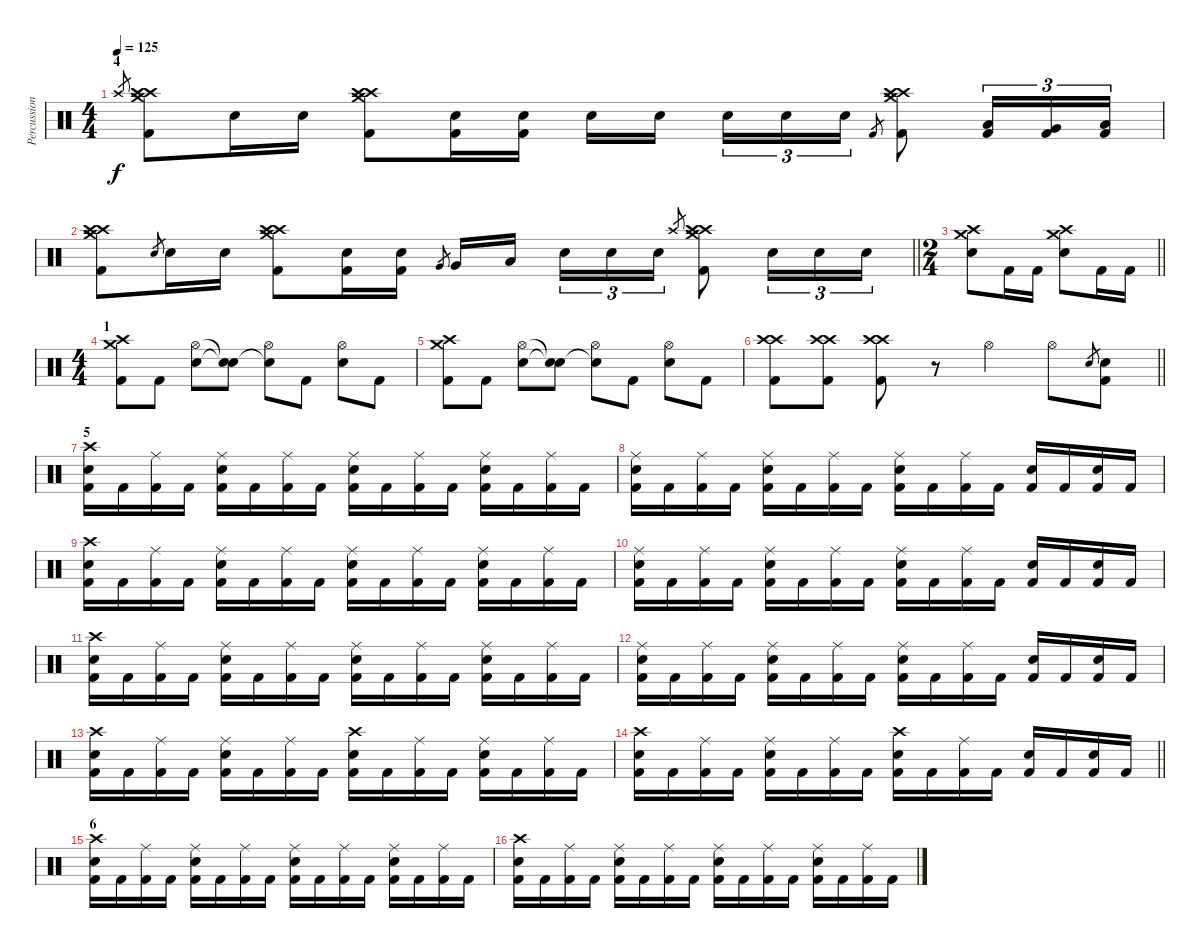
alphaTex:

\track ("Percussion" "Percussion") {instrument percussion}
\staff {score}
\articulation defaults
\ts (4 4)
\section ("" "4")
\tempo 125
\clef neutral
\ks c "Crash high (hit)".8{gr dy f}
("Crash high (hit)" "Crash medium (hit)" "Crash high (hit)" "Kick (hit) 2").8 "Snare (hit) 2".16 "Snare (hit) 2".16 ("Crash high (hit)" "Crash medium (hit)" "Crash high (hit)" "Kick (hit) 2").8 ("Snare (hit) 2" "Kick (hit) 2").16 ("Snare (hit) 2" "Kick (hit) 2").16 "Snare (hit) 2".16 "Snare (hit) 2".16{beam splitsecondary} "Snare (hit) 2".16{tu (3 2)} "Snare (hit) 2".16{tu (3 2)} "Snare (hit) 2".16{tu (3 2)} "Kick (hit) 2".8{gr} ("Crash high (hit)" "Crash medium (hit)" "Crash high (hit)" "Kick (hit) 2").8 ("Low Tom (hit)" "Kick (hit) 2").16{tu (3 2)} ("Very Low Tom (hit)" "Kick (hit) 2").16{tu (3 2)} ("Low Floor Tom (hit)" "Kick (hit) 2").16{tu (3 2)} |
\barLineRight lightlight
("Crash high (hit)" "Crash medium (hit)" "Crash high (hit)" "Kick (hit) 2").8 "Snare (hit) 2".8{gr} "Snare (hit) 2".16 "Snare (hit) 2".16 ("Crash high (hit)" "Crash medium (hit)" "Crash high (hit)" "Kick (hit) 2").8 ("Snare (hit) 2" "Kick (hit) 2").16 ("Snare (hit) 2" "Kick (hit) 2").16 "Very Low Tom (hit)".8{gr} "Very Low Tom (hit)".16 "Low Floor Tom (hit)".16{beam splitsecondary} "Snare (hit) 2".16{tu (3 2)} "Snare (hit) 2".16{tu (3 2)} "Snare (hit) 2".16{tu (3 2)} "Crash high (hit)".8{gr} ("Crash high (hit)" "Crash medium (hit)" "Crash high (hit)" "Kick (hit) 2").8 "Snare (hit) 2".16{tu (3 2)} "Snare (hit) 2".16{tu (3 2)} "Snare (hit) 2".16{tu (3 2)} |
\ts (2 4)
\barLineRight lightlight
("Crash medium (hit)" "Crash high (hit)" "Snare (hit) 2").8 "Kick (hit) 2".16 "Kick (hit) 2".16 ("Crash high (hit)" "Crash medium (hit)" "Snare (hit) 2").8 "Kick (hit) 2".16 "Kick (hit) 2".16 |
\ts (4 4)
\section ("" "1")
("Crash medium (hit)" "Crash high (hit)" "Kick (hit) 2").8 "Kick (hit) 2".8 ("Hi-Hat (open)" "Snare (hit) 2").8 ("Snare (hit)"{t} "Snare (hit)"{t}).8 ("Hi-Hat (open)" "Snare (hit)"{t}).8 "Kick (hit) 2".8 ("Hi-Hat (open)" "Snare (hit) 2").8 "Kick (hit) 2".8 |
("Crash medium (hit)" "Crash high (hit)" "Kick (hit) 2").8 "Kick (hit) 2".8 ("Hi-Hat (open)" "Snare (hit) 2").8 ("Snare (hit)"{t} "Snare (hit)"{t}).8 ("Hi-Hat (open)" "Snare (hit)"{t}).8 "Kick (hit) 2".8 ("Hi-Hat (open)" "Snare (hit) 2").8 "Kick (hit) 2".8 |
\barLineRight lightlight
("Crash high (hit)" "Crash high (hit)" "Kick (hit) 2").8 ("Crash high (hit)" "Crash high (hit)" "Kick (hit) 2").8 ("Crash high (hit)" "Crash high (hit)" "Kick (hit) 2").8 r.8 "Hi-Hat (open)".4 "Hi-Hat (open)".8 "Snare (hit) 2".8{gr} ("Snare (hit) 2" "Kick (hit) 2").8 |
\section ("" "5")
("Crash high (hit)" "Snare (hit) 2" "Kick (hit) 2").16 "Kick (hit) 2".16 ("Ride (middle)" "Kick (hit) 2").16 "Kick (hit) 2".16 ("Ride (middle)" "Snare (hit) 2" "Kick (hit) 2").16 "Kick (hit) 2".16 ("Ride (middle)" "Kick (hit) 2").16 "Kick (hit) 2".16 ("Ride (middle)" "Snare (hit) 2" "Kick (hit) 2").16 "Kick (hit) 2".16 ("Ride (middle)" "Kick (hit) 2").16 "Kick (hit) 2".16 ("Ride (middle)" "Snare (hit) 2" "Kick (hit) 2").16 "Kick (hit) 2".16 ("Ride (middle)" "Kick (hit) 2").16 "Kick (hit) 2".16 |
("Ride (middle)" "Snare (hit) 2" "Kick (hit) 2").16 "Kick (hit) 2".16 ("Ride (middle)" "Kick (hit) 2").16 "Kick (hit) 2".16 ("Ride (middle)" "Snare (hit) 2" "Kick (hit) 2").16 "Kick (hit) 2".16 ("Ride (middle)" "Kick (hit) 2").16 "Kick (hit) 2".16 ("Ride (middle)" "Snare (hit) 2" "Kick (hit) 2").16 "Kick (hit) 2".16 ("Ride (middle)" "Kick (hit) 2").16 "Kick (hit) 2".16 ("Snare (hit) 2" "Kick (hit) 2").16 "Kick (hit) 2".16 ("Snare (hit) 2" "Kick (hit) 2").16 "Kick (hit) 2".16 |
("Crash high (hit)" "Snare (hit) 2" "Kick (hit) 2").16 "Kick (hit) 2".16 ("Ride (middle)" "Kick (hit) 2").16 "Kick (hit) 2".16 ("Ride (middle)" "Snare (hit) 2" "Kick (hit) 2").16 "Kick (hit) 2".16 ("Ride (middle)" "Kick (hit) 2").16 "Kick (hit) 2".16 ("Ride (middle)" "Snare (hit) 2" "Kick (hit) 2").16 "Kick (hit) 2".16 ("Ride (middle)" "Kick (hit) 2").16 "Kick (hit) 2".16 ("Ride (middle)" "Snare (hit) 2" "Kick (hit) 2").16 "Kick (hit) 2".16 ("Ride (middle)" "Kick (hit) 2").16 "Kick (hit) 2".16 |
("Ride (middle)" "Snare (hit) 2" "Kick (hit) 2").16 "Kick (hit) 2".16 ("Ride (middle)" "Kick (hit) 2").16 "Kick (hit) 2".16 ("Ride (middle)" "Snare (hit) 2" "Kick (hit) 2").16 "Kick (hit) 2".16 ("Ride (middle)" "Kick (hit) 2").16 "Kick (hit) 2".16 ("Ride (middle)" "Snare (hit) 2" "Kick (hit) 2").16 "Kick (hit) 2".16 ("Ride (middle)" "Kick (hit) 2").16 "Kick (hit) 2".16 ("Snare (hit) 2" "Kick (hit) 2").16 "Kick (hit) 2".16 ("Snare (hit) 2" "Kick (hit) 2").16 "Kick (hit) 2".16 |
("Crash high (hit)" "Snare (hit) 2" "Kick (hit) 2").16 "Kick (hit) 2".16 ("Ride (middle)" "Kick (hit) 2").16 "Kick (hit) 2".16 ("Ride (middle)" "Snare (hit) 2" "Kick (hit) 2").16 "Kick (hit) 2".16 ("Ride (middle)" "Kick (hit) 2").16 "Kick (hit) 2".16 ("Ride (middle)" "Snare (hit) 2" "Kick (hit) 2").16 "Kick (hit) 2".16 ("Ride (middle)" "Kick (hit) 2").16 "Kick (hit) 2".16 ("Ride (middle)" "Snare (hit) 2" "Kick (hit) 2").16 "Kick (hit) 2".16 ("Ride (middle)" "Kick (hit) 2").16 "Kick (hit) 2".16 |
("Ride (middle)" "Snare (hit) 2" "Kick (hit) 2").16 "Kick (hit) 2".16 ("Ride (middle)" "Kick (hit) 2").16 "Kick (hit) 2".16 ("Ride (middle)" "Snare (hit) 2" "Kick (hit) 2").16 "Kick (hit) 2".16 ("Ride (middle)" "Kick (hit) 2").16 "Kick (hit) 2".16 ("Ride (middle)" "Snare (hit) 2" "Kick (hit) 2").16 "Kick (hit) 2".16 ("Ride (middle)" "Kick (hit) 2").16 "Kick (hit) 2".16 ("Snare (hit) 2" "Kick (hit) 2").16 "Kick (hit) 2".16 ("Snare (hit) 2" "Kick (hit) 2").16 "Kick (hit) 2".16 |
("Crash high (hit)" "Snare (hit) 2" "Kick (hit) 2").16 "Kick (hit) 2".16 ("Ride (middle)" "Kick (hit) 2").16 "Kick (hit) 2".16 ("Ride (middle)" "Snare (hit) 2" "Kick (hit) 2").16 "Kick (hit) 2".16 ("Ride (middle)" "Kick (hit) 2").16 "Kick (hit) 2".16 ("Crash high (hit)" "Snare (hit) 2" "Kick (hit) 2").16 "Kick (hit) 2".16 ("Ride (middle)" "Kick (hit) 2").16 "Kick (hit) 2".16 ("Ride (middle)" "Snare (hit) 2" "Kick (hit) 2").16 "Kick (hit) 2".16 ("Ride (middle)" "Kick (hit) 2").16 "Kick (hit) 2".16 |
\barLineRight lightlight
("Crash high (hit)" "Snare (hit) 2" "Kick (hit) 2").16 "Kick (hit) 2".16 ("Ride (middle)" "Kick (hit) 2").16 "Kick (hit) 2".16 ("Ride (middle)" "Snare (hit) 2" "Kick (hit) 2").16 "Kick (hit) 2".16 ("Ride (middle)" "Kick (hit) 2").16 "Kick (hit) 2".16 ("Crash high (hit)" "Snare (hit) 2" "Kick (hit) 2").16 "Kick (hit) 2".16 ("Ride (middle)" "Kick (hit) 2").16 "Kick (hit) 2".16 ("Snare (hit) 2" "Kick (hit) 2").16 "Kick (hit) 2".16 ("Snare (hit) 2" "Kick (hit) 2").16 "Kick (hit) 2".16 |
\section ("" "6")
("Crash high (hit)" "Snare (hit) 2" "Kick (hit) 2").16 "Kick (hit) 2".16 ("Ride (middle)" "Kick (hit) 2").16 "Kick (hit) 2".16 ("Ride (middle)" "Snare (hit) 2" "Kick (hit) 2").16 "Kick (hit) 2".16 ("Ride (middle)" "Kick (hit) 2").16 "Kick (hit) 2".16 ("Ride (middle)" "Snare (hit) 2" "Kick (hit) 2").16 "Kick (hit) 2".16 ("Ride (middle)" "Kick (hit) 2").16 "Kick (hit) 2".16 ("Ride (middle)" "Snare (hit) 2" "Kick (hit) 2").16 "Kick (hit) 2".16 ("Ride (middle)" "Kick (hit) 2").16 "Kick (hit) 2".16 |
("Crash high (hit)" "Snare (hit) 2" "Kick (hit) 2").16 "Kick (hit) 2".16 ("Ride (middle)" "Kick (hit) 2").16 "Kick (hit) 2".16 ("Ride (middle)" "Snare (hit) 2" "Kick (hit) 2").16 "Kick (hit) 2".16 ("Ride (middle)" "Kick (hit) 2").16 "Kick (hit) 2".16 ("Ride (middle)" "Snare (hit) 2" "Kick (hit) 2").16 "Kick (hit) 2".16 ("Ride (middle)" "Kick (hit) 2").16 "Kick (hit) 2".16 ("Ride (middle)" "Snare (hit) 2" "Kick (hit) 2").16 "Kick (hit) 2".16 ("Ride (middle)" "Kick (hit) 2").16 "Kick (hit) 2".16
